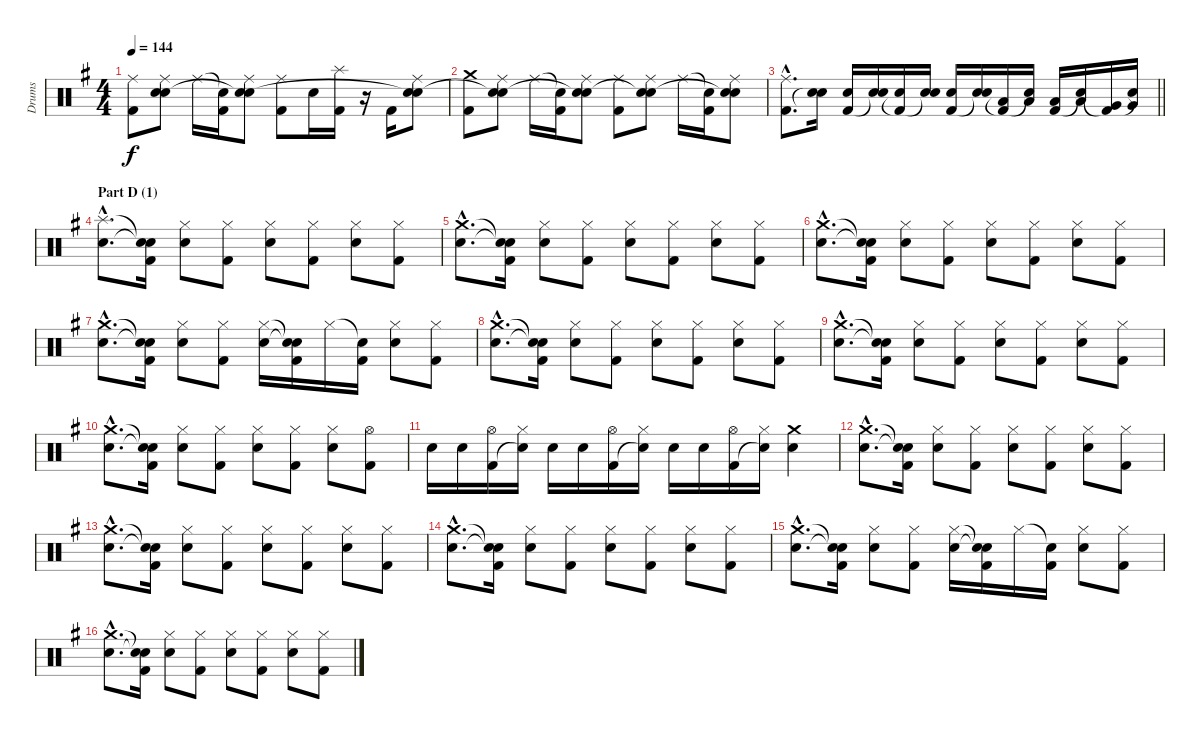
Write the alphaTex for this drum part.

\track ("Drums" "Drums") {instrument percussion}
\staff {score}
\articulation defaults
\ts (4 4)
\tempo 144
\clef neutral
\ks g
("Ride (middle)" "Kick (hit) 2").8{dy f} ("Ride (middle)" "Electric Snare (hit)" "Snare (hit)"{t}).8 "Ride (middle)".16 ("Snare (hit)"{t} "Kick (hit) 2").16 ("Ride (middle)" "Electric Snare (hit)" "Snare (hit)"{t}).8 ("Ride (middle)" "Kick (hit) 2").8 "Electric Snare (hit)".16 ("Splash (hit)" "Kick (hit) 2").16 r.16 "Kick (hit) 2".16 ("Ride (middle)" "Electric Snare (hit)" "Snare (hit)"{t}).8 |
("Crash medium (hit)" "Kick (hit) 2").8 ("Ride (middle)" "Electric Snare (hit)" "Snare (hit)"{t}).8 "Ride (middle)".16 ("Snare (hit)"{t} "Kick (hit) 2").16 ("Ride (middle)" "Electric Snare (hit)" "Snare (hit)"{t}).8 ("Ride (middle)" "Kick (hit) 2").8 ("Ride (middle)" "Electric Snare (hit)" "Snare (hit)"{t}).8 "Ride (middle)".16 ("Snare (hit)"{t} "Kick (hit) 2").16 ("Ride (middle)" "Electric Snare (hit)" "Snare (hit)"{t}).8 |
\barLineRight lightlight
("Ride (middle)"{hac} "Kick (hit) 2"{hac}).8{d} ("Electric Snare (hit)" "Snare (hit)"{t}).16 ("Electric Snare (hit)" "Kick (hit) 2").16 ("Electric Snare (hit)" "Snare (hit)"{t}).16 ("Electric Snare (hit)" "Kick (hit) 2"{t}).16 ("Electric Snare (hit)" "Snare (hit)"{t}).16 ("Electric Snare (hit)" "Kick (hit) 2").16 ("Electric Snare (hit)" "Snare (hit)"{t}).16 ("Low Tom (hit)" "Kick (hit) 2"{t}).16 ("Low Tom (hit)" "Snare (hit)"{t}).16 ("Low Tom (hit)" "Kick (hit) 2").16 ("Low Tom (hit)" "Snare (hit)"{t}).16 ("Very Low Tom (hit)" "Kick (hit) 2"{t}).16 ("Very Low Tom (hit)" "Snare (hit)"{t}).16 |
\section ("" "Part D (1)")
("Splash (hit)"{hac} "Electric Snare (hit)"{hac}).8{d} ("Snare (hit)"{t} "Snare (hit)"{t} "Kick (hit) 2").16 ("Hi-Hat (closed)" "Electric Snare (hit)").8 ("Hi-Hat (closed)" "Kick (hit) 2").8 ("Hi-Hat (closed)" "Electric Snare (hit)").8 ("Hi-Hat (closed)" "Kick (hit) 2").8 ("Hi-Hat (closed)" "Electric Snare (hit)").8 ("Hi-Hat (closed)" "Kick (hit) 2").8 |
("Crash medium (hit)"{hac} "Electric Snare (hit)"{hac}).8{d} ("Snare (hit)"{t} "Snare (hit)"{t} "Kick (hit) 2").16 ("Hi-Hat (closed)" "Electric Snare (hit)").8 ("Hi-Hat (closed)" "Kick (hit) 2").8 ("Hi-Hat (closed)" "Electric Snare (hit)").8 ("Hi-Hat (closed)" "Kick (hit) 2").8 ("Hi-Hat (closed)" "Electric Snare (hit)").8 ("Hi-Hat (closed)" "Kick (hit) 2").8 |
("Crash medium (hit)"{hac} "Electric Snare (hit)"{hac}).8{d} ("Snare (hit)"{t} "Snare (hit)"{t} "Kick (hit) 2").16 ("Hi-Hat (closed)" "Electric Snare (hit)").8 ("Hi-Hat (closed)" "Kick (hit) 2").8 ("Hi-Hat (closed)" "Electric Snare (hit)").8 ("Hi-Hat (closed)" "Kick (hit) 2").8 ("Hi-Hat (closed)" "Electric Snare (hit)").8 ("Hi-Hat (closed)" "Kick (hit) 2").8 |
("Crash medium (hit)"{hac} "Electric Snare (hit)"{hac}).8{d} ("Snare (hit)"{t} "Snare (hit)"{t} "Kick (hit) 2").16 ("Hi-Hat (closed)" "Electric Snare (hit)").8 ("Hi-Hat (closed)" "Kick (hit) 2").8 ("Hi-Hat (closed)" "Electric Snare (hit)").16 ("Snare (hit)"{t} "Snare (hit)"{t} "Kick (hit) 2").16 "Hi-Hat (closed)".16 ("Snare (hit)"{t} "Kick (hit) 2").16 ("Hi-Hat (closed)" "Electric Snare (hit)").8 ("Hi-Hat (closed)" "Kick (hit) 2").8 |
("Crash medium (hit)"{hac} "Electric Snare (hit)"{hac}).8{d} ("Snare (hit)"{t} "Snare (hit)"{t} "Kick (hit) 2").16 ("Hi-Hat (closed)" "Electric Snare (hit)").8 ("Hi-Hat (closed)" "Kick (hit) 2").8 ("Hi-Hat (closed)" "Electric Snare (hit)").8 ("Hi-Hat (closed)" "Kick (hit) 2").8 ("Hi-Hat (closed)" "Electric Snare (hit)").8 ("Hi-Hat (closed)" "Kick (hit) 2").8 |
("Crash medium (hit)"{hac} "Electric Snare (hit)"{hac}).8{d} ("Snare (hit)"{t} "Snare (hit)"{t} "Kick (hit) 2").16 ("Hi-Hat (closed)" "Electric Snare (hit)").8 ("Hi-Hat (closed)" "Kick (hit) 2").8 ("Hi-Hat (closed)" "Electric Snare (hit)").8 ("Hi-Hat (closed)" "Kick (hit) 2").8 ("Hi-Hat (closed)" "Electric Snare (hit)").8 ("Hi-Hat (closed)" "Kick (hit) 2").8 |
("Crash medium (hit)"{hac} "Electric Snare (hit)"{hac}).8{d} ("Snare (hit)"{t} "Snare (hit)"{t} "Kick (hit) 2").16 ("Hi-Hat (closed)" "Electric Snare (hit)").8 ("Hi-Hat (closed)" "Kick (hit) 2").8 ("Hi-Hat (closed)" "Electric Snare (hit)").8 ("Hi-Hat (closed)" "Kick (hit) 2").8 ("Hi-Hat (closed)" "Electric Snare (hit)").8 ("Hi-Hat (open)" "Kick (hit) 2").8 |
"Electric Snare (hit)".16 "Electric Snare (hit)".16 ("Hi-Hat (open)" "Kick (hit) 2").16 ("Hi-Hat (closed)" "Snare (hit)"{t}).16 "Electric Snare (hit)".16 "Electric Snare (hit)".16 ("Hi-Hat (open)" "Kick (hit) 2").16 ("Hi-Hat (closed)" "Snare (hit)"{t}).16 "Electric Snare (hit)".16 "Electric Snare (hit)".16 ("Hi-Hat (open)" "Kick (hit) 2").16 ("Hi-Hat (closed)" "Snare (hit)"{t}).16 ("Crash medium (hit)" "Electric Snare (hit)").4 |
("Crash medium (hit)"{hac} "Electric Snare (hit)"{hac}).8{d} ("Snare (hit)"{t} "Snare (hit)"{t} "Kick (hit) 2").16 ("Hi-Hat (closed)" "Electric Snare (hit)").8 ("Hi-Hat (closed)" "Kick (hit) 2").8 ("Hi-Hat (closed)" "Electric Snare (hit)").8 ("Hi-Hat (closed)" "Kick (hit) 2").8 ("Hi-Hat (closed)" "Electric Snare (hit)").8 ("Hi-Hat (closed)" "Kick (hit) 2").8 |
("Crash medium (hit)"{hac} "Electric Snare (hit)"{hac}).8{d} ("Snare (hit)"{t} "Snare (hit)"{t} "Kick (hit) 2").16 ("Hi-Hat (closed)" "Electric Snare (hit)").8 ("Hi-Hat (closed)" "Kick (hit) 2").8 ("Hi-Hat (closed)" "Electric Snare (hit)").8 ("Hi-Hat (closed)" "Kick (hit) 2").8 ("Hi-Hat (closed)" "Electric Snare (hit)").8 ("Hi-Hat (closed)" "Kick (hit) 2").8 |
("Crash medium (hit)"{hac} "Electric Snare (hit)"{hac}).8{d} ("Snare (hit)"{t} "Snare (hit)"{t} "Kick (hit) 2").16 ("Hi-Hat (closed)" "Electric Snare (hit)").8 ("Hi-Hat (closed)" "Kick (hit) 2").8 ("Hi-Hat (closed)" "Electric Snare (hit)").8 ("Hi-Hat (closed)" "Kick (hit) 2").8 ("Hi-Hat (closed)" "Electric Snare (hit)").8 ("Hi-Hat (closed)" "Kick (hit) 2").8 |
("Crash medium (hit)"{hac} "Electric Snare (hit)"{hac}).8{d} ("Snare (hit)"{t} "Snare (hit)"{t} "Kick (hit) 2").16 ("Hi-Hat (closed)" "Electric Snare (hit)").8 ("Hi-Hat (closed)" "Kick (hit) 2").8 ("Hi-Hat (closed)" "Electric Snare (hit)").16 ("Snare (hit)"{t} "Snare (hit)"{t} "Kick (hit) 2").16 "Hi-Hat (closed)".16 ("Snare (hit)"{t} "Kick (hit) 2").16 ("Hi-Hat (closed)" "Electric Snare (hit)").8 ("Hi-Hat (closed)" "Kick (hit) 2").8 |
("Crash medium (hit)"{hac} "Electric Snare (hit)"{hac}).8{d} ("Snare (hit)"{t} "Snare (hit)"{t} "Kick (hit) 2").16 ("Hi-Hat (closed)" "Electric Snare (hit)").8 ("Hi-Hat (closed)" "Kick (hit) 2").8 ("Hi-Hat (closed)" "Electric Snare (hit)").8 ("Hi-Hat (closed)" "Kick (hit) 2").8 ("Hi-Hat (closed)" "Electric Snare (hit)").8 ("Hi-Hat (closed)" "Kick (hit) 2").8
